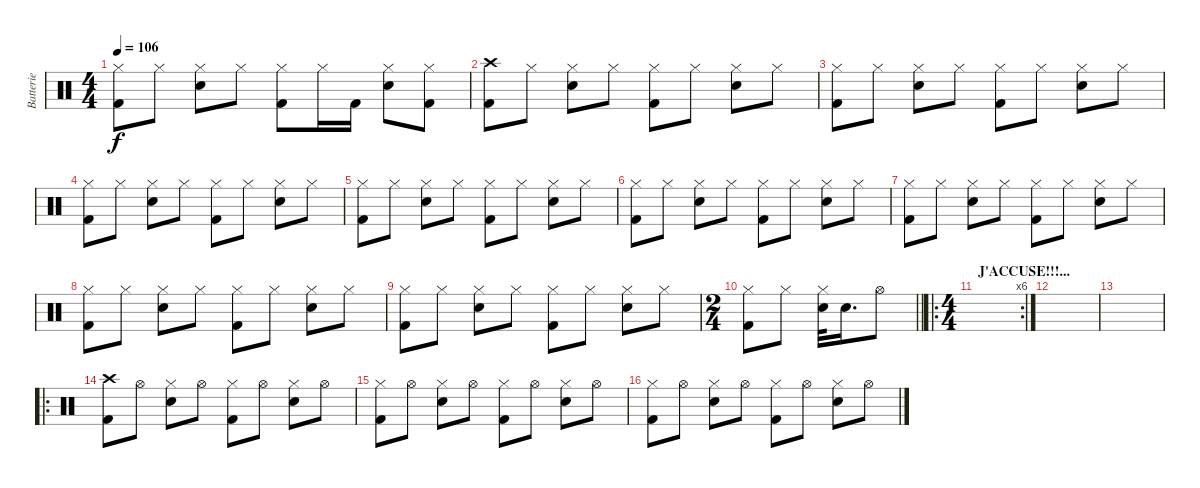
\track ("Batterie" "Batterie") {instrument percussion}
\staff {score}
\articulation defaults
\ts (4 4)
\tempo 106
\clef neutral
\ks c
("Hi-Hat (closed)" "Kick (hit) 2").8{dy f} "Hi-Hat (closed)".8 ("Hi-Hat (closed)" "Electric Snare (hit)").8 "Hi-Hat (closed)".8 ("Hi-Hat (closed)" "Kick (hit) 2").8 "Hi-Hat (closed)".16 "Kick (hit) 2".16 ("Hi-Hat (closed)" "Electric Snare (hit)").8 ("Hi-Hat (closed)" "Kick (hit) 2").8 |
("Crash high (hit)" "Kick (hit) 2").8 "Hi-Hat (closed)".8 ("Hi-Hat (closed)" "Electric Snare (hit)").8 "Hi-Hat (closed)".8 ("Hi-Hat (closed)" "Kick (hit) 2").8 "Hi-Hat (closed)".8 ("Hi-Hat (closed)" "Electric Snare (hit)").8 "Hi-Hat (closed)".8 |
("Hi-Hat (closed)" "Kick (hit) 2").8 "Hi-Hat (closed)".8 ("Hi-Hat (closed)" "Electric Snare (hit)").8 "Hi-Hat (closed)".8 ("Hi-Hat (closed)" "Kick (hit) 2").8 "Hi-Hat (closed)".8 ("Hi-Hat (closed)" "Electric Snare (hit)").8 "Hi-Hat (closed)".8 |
("Hi-Hat (closed)" "Kick (hit) 2").8 "Hi-Hat (closed)".8 ("Hi-Hat (closed)" "Electric Snare (hit)").8 "Hi-Hat (closed)".8 ("Hi-Hat (closed)" "Kick (hit) 2").8 "Hi-Hat (closed)".8 ("Hi-Hat (closed)" "Electric Snare (hit)").8 "Hi-Hat (closed)".8 |
("Hi-Hat (closed)" "Kick (hit) 2").8 "Hi-Hat (closed)".8 ("Hi-Hat (closed)" "Electric Snare (hit)").8 "Hi-Hat (closed)".8 ("Hi-Hat (closed)" "Kick (hit) 2").8 "Hi-Hat (closed)".8 ("Hi-Hat (closed)" "Electric Snare (hit)").8 "Hi-Hat (closed)".8 |
("Hi-Hat (closed)" "Kick (hit) 2").8 "Hi-Hat (closed)".8 ("Hi-Hat (closed)" "Electric Snare (hit)").8 "Hi-Hat (closed)".8 ("Hi-Hat (closed)" "Kick (hit) 2").8 "Hi-Hat (closed)".8 ("Hi-Hat (closed)" "Electric Snare (hit)").8 "Hi-Hat (closed)".8 |
("Hi-Hat (closed)" "Kick (hit) 2").8 "Hi-Hat (closed)".8 ("Hi-Hat (closed)" "Electric Snare (hit)").8 "Hi-Hat (closed)".8 ("Hi-Hat (closed)" "Kick (hit) 2").8 "Hi-Hat (closed)".8 ("Hi-Hat (closed)" "Electric Snare (hit)").8 "Hi-Hat (closed)".8 |
("Hi-Hat (closed)" "Kick (hit) 2").8 "Hi-Hat (closed)".8 ("Hi-Hat (closed)" "Electric Snare (hit)").8 "Hi-Hat (closed)".8 ("Hi-Hat (closed)" "Kick (hit) 2").8 "Hi-Hat (closed)".8 ("Hi-Hat (closed)" "Electric Snare (hit)").8 "Hi-Hat (closed)".8 |
("Hi-Hat (closed)" "Kick (hit) 2").8 "Hi-Hat (closed)".8 ("Hi-Hat (closed)" "Electric Snare (hit)").8 "Hi-Hat (closed)".8 ("Hi-Hat (closed)" "Kick (hit) 2").8 "Hi-Hat (closed)".8 ("Hi-Hat (closed)" "Electric Snare (hit)").8 "Hi-Hat (closed)".8 |
\ts (2 4)
\barLineRight lightlight
("Hi-Hat (closed)" "Kick (hit) 2").8 "Hi-Hat (closed)".8 ("Hi-Hat (closed)" "Electric Snare (hit)").32 "Electric Snare (hit)".16{d} "Hi-Hat (open)".8 |
\ro
\rc 6
\ts (4 4)
\section ("" "J'ACCUSE!!!...")
|
|
|
\ro
("Crash high (hit)" "Kick (hit) 2").8 "Hi-Hat (open)".8 ("Hi-Hat (closed)" "Electric Snare (hit)").8 "Hi-Hat (open)".8 ("Hi-Hat (closed)" "Kick (hit) 2").8 "Hi-Hat (open)".8 ("Hi-Hat (closed)" "Electric Snare (hit)").8 "Hi-Hat (open)".8 |
("Hi-Hat (closed)" "Kick (hit) 2").8 "Hi-Hat (open)".8 ("Hi-Hat (closed)" "Electric Snare (hit)").8 "Hi-Hat (open)".8 ("Hi-Hat (closed)" "Kick (hit) 2").8 "Hi-Hat (open)".8 ("Hi-Hat (closed)" "Electric Snare (hit)").8 "Hi-Hat (open)".8 |
("Hi-Hat (closed)" "Kick (hit) 2").8 "Hi-Hat (open)".8 ("Hi-Hat (closed)" "Electric Snare (hit)").8 "Hi-Hat (open)".8 ("Hi-Hat (closed)" "Kick (hit) 2").8 "Hi-Hat (open)".8 ("Hi-Hat (closed)" "Electric Snare (hit)").8 "Hi-Hat (open)".8
